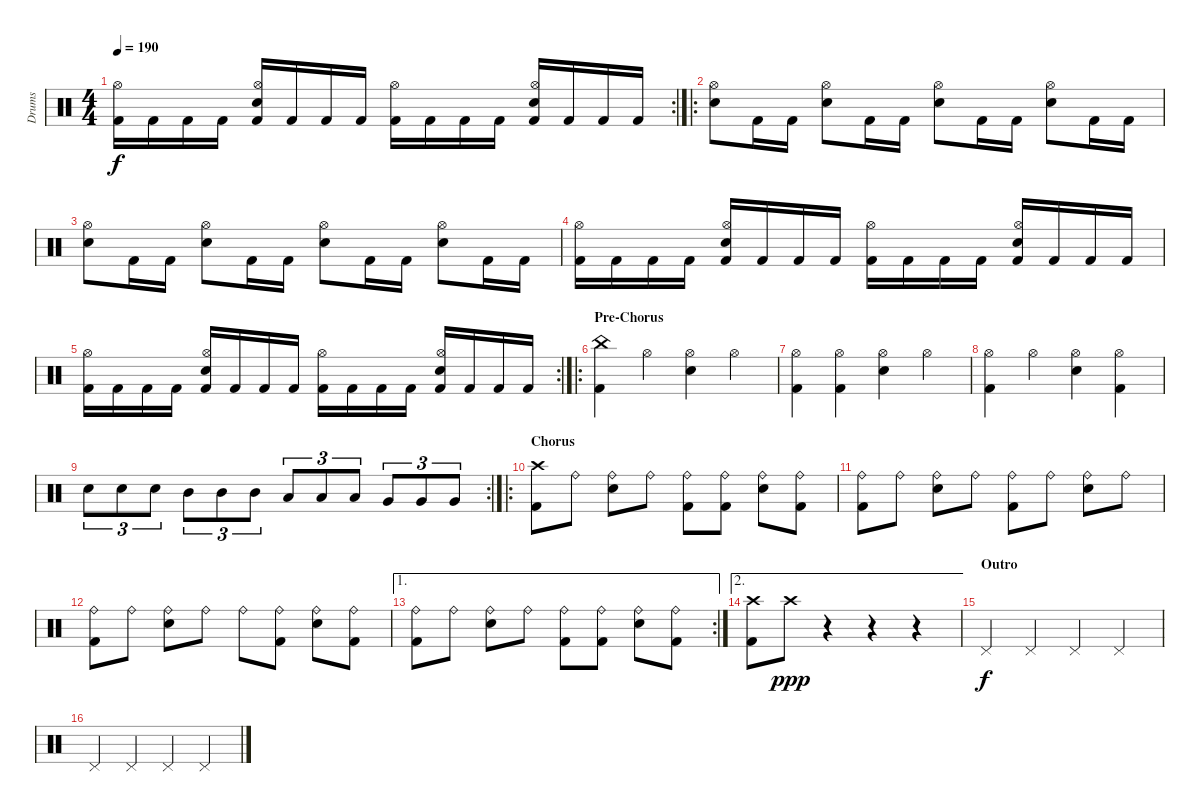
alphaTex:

\track ("Drums" "Drums") {instrument percussion}
\staff {score}
\articulation defaults
\rc 2
\ts (4 4)
\tempo 190
\clef neutral
\ks c
("Kick (hit) 2" "Hi-Hat (open)").16{dy f} "Kick (hit) 2".16 "Kick (hit) 2".16 "Kick (hit) 2".16 ("Kick (hit) 2" "Hi-Hat (open)" "Electric Snare (hit)").16 "Kick (hit) 2".16 "Kick (hit) 2".16 "Kick (hit) 2".16 ("Kick (hit) 2" "Hi-Hat (open)").16 "Kick (hit) 2".16 "Kick (hit) 2".16 "Kick (hit) 2".16 ("Kick (hit) 2" "Hi-Hat (open)" "Electric Snare (hit)").16 "Kick (hit) 2".16 "Kick (hit) 2".16 "Kick (hit) 2".16 |
\ro
("Hi-Hat (open)" "Electric Snare (hit)").8 "Kick (hit) 2".16 "Kick (hit) 2".16 ("Hi-Hat (open)" "Electric Snare (hit)").8 "Kick (hit) 2".16 "Kick (hit) 2".16 ("Hi-Hat (open)" "Electric Snare (hit)").8 "Kick (hit) 2".16 "Kick (hit) 2".16 ("Hi-Hat (open)" "Electric Snare (hit)").8 "Kick (hit) 2".16 "Kick (hit) 2".16 |
("Hi-Hat (open)" "Electric Snare (hit)").8 "Kick (hit) 2".16 "Kick (hit) 2".16 ("Hi-Hat (open)" "Electric Snare (hit)").8 "Kick (hit) 2".16 "Kick (hit) 2".16 ("Hi-Hat (open)" "Electric Snare (hit)").8 "Kick (hit) 2".16 "Kick (hit) 2".16 ("Hi-Hat (open)" "Electric Snare (hit)").8 "Kick (hit) 2".16 "Kick (hit) 2".16 |
("Kick (hit) 2" "Hi-Hat (open)").16 "Kick (hit) 2".16 "Kick (hit) 2".16 "Kick (hit) 2".16 ("Kick (hit) 2" "Hi-Hat (open)" "Electric Snare (hit)").16 "Kick (hit) 2".16 "Kick (hit) 2".16 "Kick (hit) 2".16 ("Kick (hit) 2" "Hi-Hat (open)").16 "Kick (hit) 2".16 "Kick (hit) 2".16 "Kick (hit) 2".16 ("Kick (hit) 2" "Hi-Hat (open)" "Electric Snare (hit)").16 "Kick (hit) 2".16 "Kick (hit) 2".16 "Kick (hit) 2".16 |
\rc 2
("Kick (hit) 2" "Hi-Hat (open)").16 "Kick (hit) 2".16 "Kick (hit) 2".16 "Kick (hit) 2".16 ("Kick (hit) 2" "Hi-Hat (open)" "Electric Snare (hit)").16 "Kick (hit) 2".16 "Kick (hit) 2".16 "Kick (hit) 2".16 ("Kick (hit) 2" "Hi-Hat (open)").16 "Kick (hit) 2".16 "Kick (hit) 2".16 "Kick (hit) 2".16 ("Kick (hit) 2" "Hi-Hat (open)" "Electric Snare (hit)").16 "Kick (hit) 2".16 "Kick (hit) 2".16 "Kick (hit) 2".16 |
\ro
\section ("" "Pre-Chorus")
("China (hit)" "Kick (hit) 2").4 "Hi-Hat (open)".4 ("Hi-Hat (open)" "Electric Snare (hit)").4 "Hi-Hat (open)".4 |
("Hi-Hat (open)" "Kick (hit) 2").4 ("Hi-Hat (open)" "Kick (hit) 2").4 ("Hi-Hat (open)" "Electric Snare (hit)").4 "Hi-Hat (open)".4 |
("Hi-Hat (open)" "Kick (hit) 2").4 "Hi-Hat (open)".4 ("Hi-Hat (open)" "Electric Snare (hit)").4 ("Hi-Hat (open)" "Kick (hit) 2").4 |
\rc 2 "Electric Snare (hit)".8{tu (3 2)} "Electric Snare (hit)".8{tu (3 2)} "Electric Snare (hit)".8{tu (3 2)} "Mid Tom (hit)".8{tu (3 2)} "Mid Tom (hit)".8{tu (3 2)} "Mid Tom (hit)".8{tu (3 2)} "Low Tom (hit)".8{tu (3 2)} "Low Tom (hit)".8{tu (3 2)} "Low Tom (hit)".8{tu (3 2)} "Very Low Tom (hit)".8{tu (3 2)} "Very Low Tom (hit)".8{tu (3 2)} "Very Low Tom (hit)".8{tu (3 2)}
|
\ro
\section ("" "Chorus")
("Crash high (hit)" "Kick (hit) 2").8 "Ride (bell)".8 ("Ride (bell)" "Electric Snare (hit)").8 "Ride (bell)".8 ("Ride (bell)" "Kick (hit) 2").8 ("Ride (bell)" "Kick (hit) 2").8 ("Ride (bell)" "Electric Snare (hit)").8 ("Ride (bell)" "Kick (hit) 2").8 |
("Ride (bell)" "Kick (hit) 2").8 "Ride (bell)".8 ("Ride (bell)" "Electric Snare (hit)").8 "Ride (bell)".8 ("Ride (bell)" "Kick (hit) 2").8 "Ride (bell)".8 ("Ride (bell)" "Electric Snare (hit)").8 "Ride (bell)".8 |
("Ride (bell)" "Kick (hit) 2").8 "Ride (bell)".8 ("Ride (bell)" "Electric Snare (hit)").8 "Ride (bell)".8 "Ride (bell)".8 ("Ride (bell)" "Kick (hit) 2").8 ("Ride (bell)" "Electric Snare (hit)").8 ("Ride (bell)" "Kick (hit) 2").8 |
\ae 1
\rc 2
("Ride (bell)" "Kick (hit) 2").8 "Ride (bell)".8 ("Ride (bell)" "Electric Snare (hit)").8 "Ride (bell)".8 ("Ride (bell)" "Kick (hit) 2").8 ("Ride (bell)" "Kick (hit) 2").8 ("Ride (bell)" "Electric Snare (hit)").8 ("Ride (bell)" "Kick (hit) 2").8 |
\ae 2
("Crash high (hit)" "Kick (hit) 2").8 "Crash high (hit)".8{dy ppp} r.4 r.4 r.4 |
\section ("" "Outro")
"Pedal Hi-Hat (hit)".4{dy f} "Pedal Hi-Hat (hit)".4 "Pedal Hi-Hat (hit)".4 "Pedal Hi-Hat (hit)".4 |
"Pedal Hi-Hat (hit)".4 "Pedal Hi-Hat (hit)".4 "Pedal Hi-Hat (hit)".4 "Pedal Hi-Hat (hit)".4
